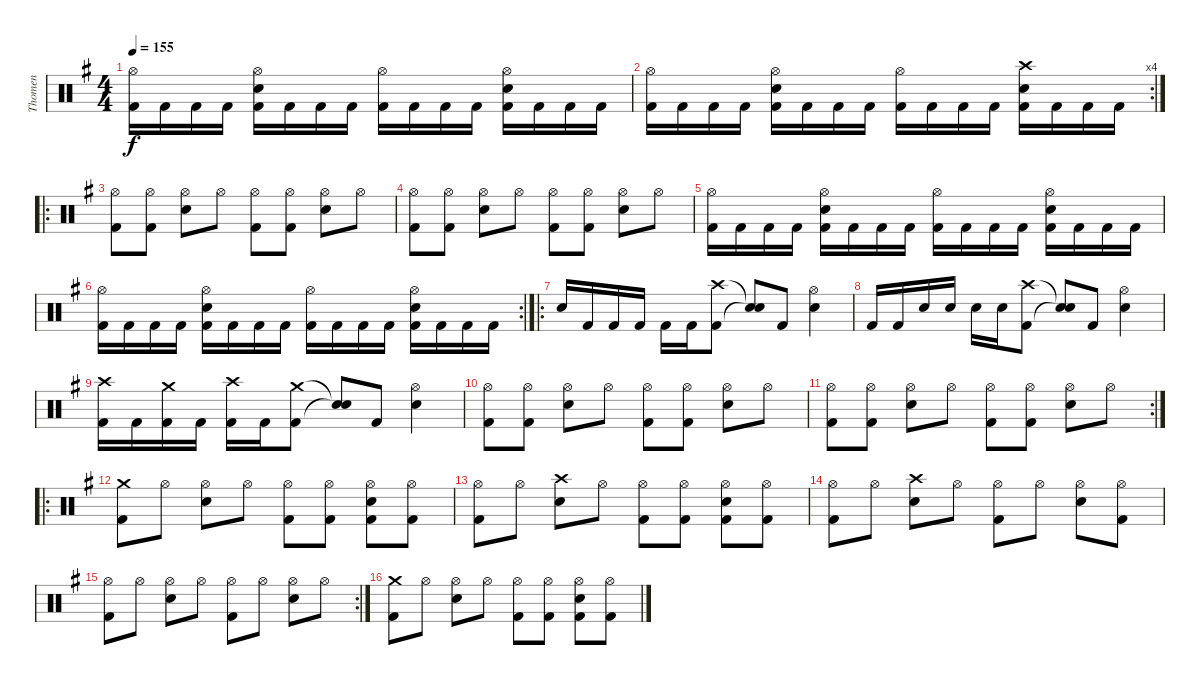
\track ("Thomen" "Thomen") {instrument percussion}
\staff {score}
\articulation defaults
\ts (4 4)
\tempo 155
\clef neutral
\ks g
("Hi-Hat (open)" "Kick (hit) 2").16{dy f} "Kick (hit) 2".16 "Kick (hit) 2".16 "Kick (hit) 2".16 ("Hi-Hat (open)" "Electric Snare (hit)" "Kick (hit) 2").16 "Kick (hit) 2".16 "Kick (hit) 2".16 "Kick (hit) 2".16 ("Hi-Hat (open)" "Kick (hit) 2").16 "Kick (hit) 2".16 "Kick (hit) 2".16 "Kick (hit) 2".16 ("Hi-Hat (open)" "Electric Snare (hit)" "Kick (hit) 2").16 "Kick (hit) 2".16 "Kick (hit) 2".16 "Kick (hit) 2".16 |
\rc 4
("Hi-Hat (open)" "Kick (hit) 2").16 "Kick (hit) 2".16 "Kick (hit) 2".16 "Kick (hit) 2".16 ("Hi-Hat (open)" "Electric Snare (hit)" "Kick (hit) 2").16 "Kick (hit) 2".16 "Kick (hit) 2".16 "Kick (hit) 2".16 ("Hi-Hat (open)" "Kick (hit) 2").16 "Kick (hit) 2".16 "Kick (hit) 2".16 "Kick (hit) 2".16 ("Crash high (hit)" "Electric Snare (hit)" "Kick (hit) 2").16 "Kick (hit) 2".16 "Kick (hit) 2".16 "Kick (hit) 2".16 |
\ro
("Hi-Hat (open)" "Kick (hit) 2").8 ("Hi-Hat (open)" "Kick (hit) 2").8 ("Hi-Hat (open)" "Electric Snare (hit)").8 "Hi-Hat (open)".8 ("Hi-Hat (open)" "Kick (hit) 2").8 ("Hi-Hat (open)" "Kick (hit) 2").8 ("Hi-Hat (open)" "Electric Snare (hit)").8 "Hi-Hat (open)".8 |
("Hi-Hat (open)" "Kick (hit) 2").8 ("Hi-Hat (open)" "Kick (hit) 2").8 ("Hi-Hat (open)" "Electric Snare (hit)").8 "Hi-Hat (open)".8 ("Hi-Hat (open)" "Kick (hit) 2").8 ("Hi-Hat (open)" "Kick (hit) 2").8 ("Hi-Hat (open)" "Electric Snare (hit)").8 "Hi-Hat (open)".8 |
("Hi-Hat (open)" "Kick (hit) 2").16 "Kick (hit) 2".16 "Kick (hit) 2".16 "Kick (hit) 2".16 ("Hi-Hat (open)" "Electric Snare (hit)" "Kick (hit) 2").16 "Kick (hit) 2".16 "Kick (hit) 2".16 "Kick (hit) 2".16 ("Hi-Hat (open)" "Kick (hit) 2").16 "Kick (hit) 2".16 "Kick (hit) 2".16 "Kick (hit) 2".16 ("Hi-Hat (open)" "Electric Snare (hit)" "Kick (hit) 2").16 "Kick (hit) 2".16 "Kick (hit) 2".16 "Kick (hit) 2".16 |
\rc 2
("Hi-Hat (open)" "Kick (hit) 2").16 "Kick (hit) 2".16 "Kick (hit) 2".16 "Kick (hit) 2".16 ("Hi-Hat (open)" "Electric Snare (hit)" "Kick (hit) 2").16 "Kick (hit) 2".16 "Kick (hit) 2".16 "Kick (hit) 2".16 ("Hi-Hat (open)" "Kick (hit) 2").16 "Kick (hit) 2".16 "Kick (hit) 2".16 "Kick (hit) 2".16 ("Hi-Hat (open)" "Electric Snare (hit)" "Kick (hit) 2").16 "Kick (hit) 2".16 "Kick (hit) 2".16 "Kick (hit) 2".16 |
\ro "Electric Snare (hit)".16 "Kick (hit) 2".16 "Kick (hit) 2".16 "Kick (hit) 2".16 "Kick (hit) 2".16 "Kick (hit) 2".16
("Crash high (hit)" "Kick (hit) 2").8 ("Snare (hit)"{t} "Snare (hit)"{t}).8 "Kick (hit) 2".8 ("Hi-Hat (open)" "Electric Snare (hit)").4 |
"Kick (hit) 2".16 "Kick (hit) 2".16 "Electric Snare (hit)".16 "Electric Snare (hit)".16 "Electric Snare (hit)".16 "Electric Snare (hit)".16 ("Crash high (hit)" "Kick (hit) 2").8 ("Snare (hit)"{t} "Snare (hit)"{t}).8 "Kick (hit) 2".8 ("Hi-Hat (open)" "Electric Snare (hit)").4 |
("Crash high (hit)" "Kick (hit) 2").16 "Kick (hit) 2".16 ("Crash medium (hit)" "Kick (hit) 2").16 "Kick (hit) 2".16 ("Crash high (hit)" "Kick (hit) 2").16 "Kick (hit) 2".16 ("Crash medium (hit)" "Kick (hit) 2").8 ("Snare (hit)"{t} "Snare (hit)"{t}).8 "Kick (hit) 2".8 ("Hi-Hat (open)" "Electric Snare (hit)").4 |
("Hi-Hat (open)" "Kick (hit) 2").8 ("Hi-Hat (open)" "Kick (hit) 2").8 ("Hi-Hat (open)" "Electric Snare (hit)").8 "Hi-Hat (open)".8 ("Hi-Hat (open)" "Kick (hit) 2").8 ("Hi-Hat (open)" "Kick (hit) 2").8 ("Hi-Hat (open)" "Electric Snare (hit)").8 "Hi-Hat (open)".8 |
\rc 2
("Hi-Hat (open)" "Kick (hit) 2").8 ("Hi-Hat (open)" "Kick (hit) 2").8 ("Hi-Hat (open)" "Electric Snare (hit)").8 "Hi-Hat (open)".8 ("Hi-Hat (open)" "Kick (hit) 2").8 ("Hi-Hat (open)" "Kick (hit) 2").8 ("Hi-Hat (open)" "Electric Snare (hit)").8 "Hi-Hat (open)".8 |
\ro
("Crash medium (hit)" "Kick (hit) 2").8 "Hi-Hat (open)".8 ("Hi-Hat (open)" "Electric Snare (hit)").8 "Hi-Hat (open)".8 ("Hi-Hat (open)" "Kick (hit) 2").8 ("Hi-Hat (open)" "Kick (hit) 2").8 ("Hi-Hat (open)" "Electric Snare (hit)" "Kick (hit) 2").8 ("Hi-Hat (open)" "Kick (hit) 2").8 |
("Hi-Hat (open)" "Kick (hit) 2").8 "Hi-Hat (open)".8 ("Crash high (hit)" "Electric Snare (hit)").8 "Hi-Hat (open)".8 ("Hi-Hat (open)" "Kick (hit) 2").8 ("Hi-Hat (open)" "Kick (hit) 2").8 ("Hi-Hat (open)" "Electric Snare (hit)" "Kick (hit) 2").8 ("Hi-Hat (open)" "Kick (hit) 2").8 |
("Hi-Hat (open)" "Kick (hit) 2").8 "Hi-Hat (open)".8 ("Crash high (hit)" "Electric Snare (hit)").8 "Hi-Hat (open)".8 ("Hi-Hat (open)" "Kick (hit) 2").8 "Hi-Hat (open)".8 ("Hi-Hat (open)" "Electric Snare (hit)").8 ("Hi-Hat (open)" "Kick (hit) 2").8 |
\rc 2
("Hi-Hat (open)" "Kick (hit) 2").8 "Hi-Hat (open)".8 ("Hi-Hat (open)" "Electric Snare (hit)").8 "Hi-Hat (open)".8 ("Hi-Hat (open)" "Kick (hit) 2").8 "Hi-Hat (open)".8 ("Hi-Hat (open)" "Electric Snare (hit)").8 "Hi-Hat (open)".8 |
("Crash medium (hit)" "Kick (hit) 2").8 "Hi-Hat (open)".8 ("Hi-Hat (open)" "Electric Snare (hit)").8 "Hi-Hat (open)".8 ("Hi-Hat (open)" "Kick (hit) 2").8 ("Hi-Hat (open)" "Kick (hit) 2").8 ("Hi-Hat (open)" "Electric Snare (hit)" "Kick (hit) 2").8 ("Hi-Hat (open)" "Kick (hit) 2").8
